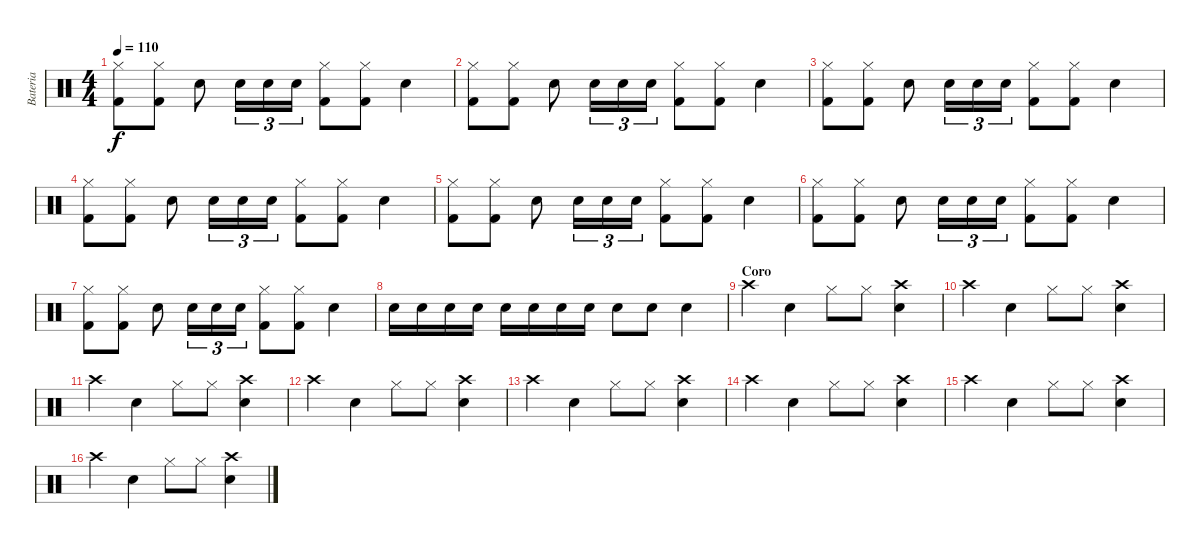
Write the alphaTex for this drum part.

\track ("Bateria" "Bateria") {instrument percussion}
\staff {score}
\articulation defaults
\ts (4 4)
\tempo 110
\clef neutral
\ks c
("Hi-Hat (closed)" "Kick (hit) 2").8{dy f} ("Hi-Hat (closed)" "Kick (hit) 2").8 "Electric Snare (hit)".8 "Snare (hit) 2".16{tu (3 2)} "Snare (hit) 2".16{tu (3 2)} "Snare (hit) 2".16{tu (3 2)} ("Hi-Hat (closed)" "Kick (hit) 2").8 ("Hi-Hat (closed)" "Kick (hit) 2").8 "Electric Snare (hit)".4 |
("Hi-Hat (closed)" "Kick (hit) 2").8 ("Hi-Hat (closed)" "Kick (hit) 2").8 "Electric Snare (hit)".8 "Snare (hit) 2".16{tu (3 2)} "Snare (hit) 2".16{tu (3 2)} "Snare (hit) 2".16{tu (3 2)} ("Hi-Hat (closed)" "Kick (hit) 2").8 ("Hi-Hat (closed)" "Kick (hit) 2").8 "Electric Snare (hit)".4 |
("Hi-Hat (closed)" "Kick (hit) 2").8 ("Hi-Hat (closed)" "Kick (hit) 2").8 "Electric Snare (hit)".8 "Snare (hit) 2".16{tu (3 2)} "Snare (hit) 2".16{tu (3 2)} "Snare (hit) 2".16{tu (3 2)} ("Hi-Hat (closed)" "Kick (hit) 2").8 ("Hi-Hat (closed)" "Kick (hit) 2").8 "Electric Snare (hit)".4 |
("Hi-Hat (closed)" "Kick (hit) 2").8 ("Hi-Hat (closed)" "Kick (hit) 2").8 "Electric Snare (hit)".8 "Snare (hit) 2".16{tu (3 2)} "Snare (hit) 2".16{tu (3 2)} "Snare (hit) 2".16{tu (3 2)} ("Hi-Hat (closed)" "Kick (hit) 2").8 ("Hi-Hat (closed)" "Kick (hit) 2").8 "Electric Snare (hit)".4 |
("Hi-Hat (closed)" "Kick (hit) 2").8 ("Hi-Hat (closed)" "Kick (hit) 2").8 "Electric Snare (hit)".8 "Snare (hit) 2".16{tu (3 2)} "Snare (hit) 2".16{tu (3 2)} "Snare (hit) 2".16{tu (3 2)} ("Hi-Hat (closed)" "Kick (hit) 2").8 ("Hi-Hat (closed)" "Kick (hit) 2").8 "Electric Snare (hit)".4 |
("Hi-Hat (closed)" "Kick (hit) 2").8 ("Hi-Hat (closed)" "Kick (hit) 2").8 "Electric Snare (hit)".8 "Snare (hit) 2".16{tu (3 2)} "Snare (hit) 2".16{tu (3 2)} "Snare (hit) 2".16{tu (3 2)} ("Hi-Hat (closed)" "Kick (hit) 2").8 ("Hi-Hat (closed)" "Kick (hit) 2").8 "Electric Snare (hit)".4 |
("Hi-Hat (closed)" "Kick (hit) 2").8 ("Hi-Hat (closed)" "Kick (hit) 2").8 "Electric Snare (hit)".8 "Snare (hit) 2".16{tu (3 2)} "Snare (hit) 2".16{tu (3 2)} "Snare (hit) 2".16{tu (3 2)} ("Hi-Hat (closed)" "Kick (hit) 2").8 ("Hi-Hat (closed)" "Kick (hit) 2").8 "Electric Snare (hit)".4 |
"Electric Snare (hit)".16 "Electric Snare (hit)".16 "Electric Snare (hit)".16 "Electric Snare (hit)".16 "Electric Snare (hit)".16 "Electric Snare (hit)".16 "Electric Snare (hit)".16 "Electric Snare (hit)".16 "Electric Snare (hit)".8 "Electric Snare (hit)".8 "Electric Snare (hit)".4 |
\section ("" "Coro")
"Crash high (hit)".4 "Electric Snare (hit)".4 "Hi-Hat (closed)".8 "Hi-Hat (closed)".8 ("Crash high (hit)" "Electric Snare (hit)").4 |
"Crash high (hit)".4 "Electric Snare (hit)".4 "Hi-Hat (closed)".8 "Hi-Hat (closed)".8 ("Crash high (hit)" "Electric Snare (hit)").4 |
"Crash high (hit)".4 "Electric Snare (hit)".4 "Hi-Hat (closed)".8 "Hi-Hat (closed)".8 ("Crash high (hit)" "Electric Snare (hit)").4 |
"Crash high (hit)".4 "Electric Snare (hit)".4 "Hi-Hat (closed)".8 "Hi-Hat (closed)".8 ("Crash high (hit)" "Electric Snare (hit)").4 |
"Crash high (hit)".4 "Electric Snare (hit)".4 "Hi-Hat (closed)".8 "Hi-Hat (closed)".8 ("Crash high (hit)" "Electric Snare (hit)").4 |
"Crash high (hit)".4 "Electric Snare (hit)".4 "Hi-Hat (closed)".8 "Hi-Hat (closed)".8 ("Crash high (hit)" "Electric Snare (hit)").4 |
"Crash high (hit)".4 "Electric Snare (hit)".4 "Hi-Hat (closed)".8 "Hi-Hat (closed)".8 ("Crash high (hit)" "Electric Snare (hit)").4 |
"Crash high (hit)".4 "Electric Snare (hit)".4 "Hi-Hat (closed)".8 "Hi-Hat (closed)".8 ("Crash high (hit)" "Electric Snare (hit)").4
